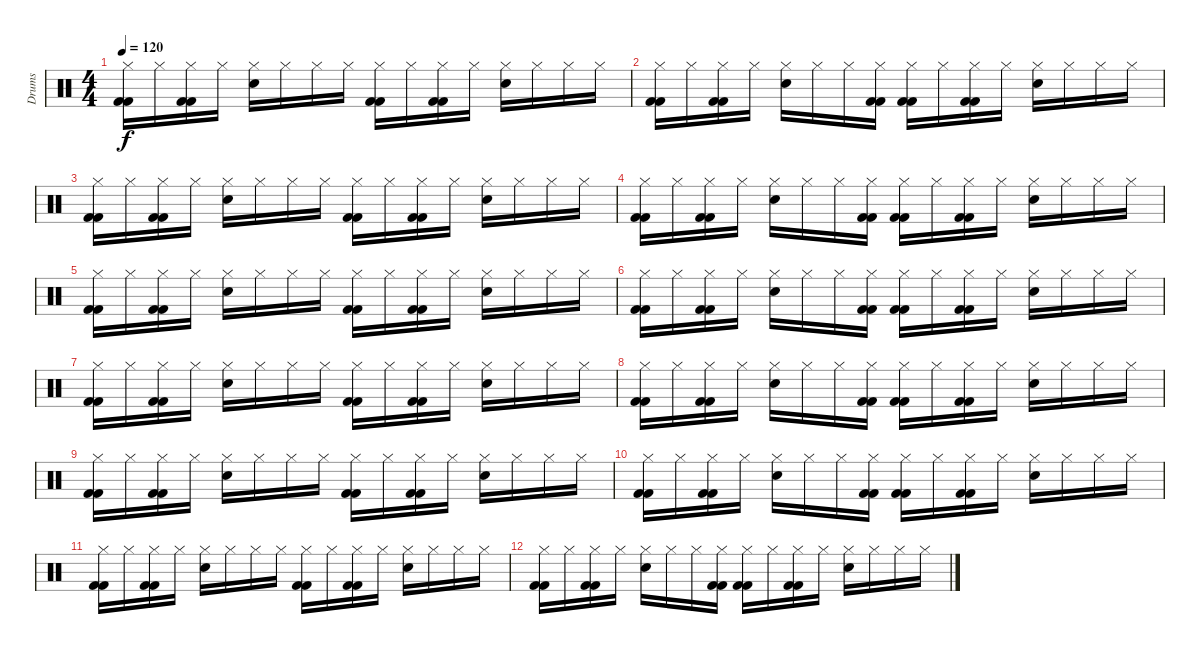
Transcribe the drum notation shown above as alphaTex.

\track ("Drums" "Drums") {instrument percussion}
\staff {score}
\articulation defaults
\ts (4 4)
\tempo 120
\clef neutral
\ks c
("Hi-Hat (closed)" "Kick (hit) 2" "Kick (hit) 2").16{dy f} "Hi-Hat (closed)".16 ("Hi-Hat (closed)" "Kick (hit) 2" "Kick (hit) 2").16 "Hi-Hat (closed)".16 ("Hi-Hat (closed)" "Electric Snare (hit)").16 "Hi-Hat (closed)".16 "Hi-Hat (closed)".16 "Hi-Hat (closed)".16 ("Hi-Hat (closed)" "Kick (hit) 2" "Kick (hit) 2").16 "Hi-Hat (closed)".16 ("Hi-Hat (closed)" "Kick (hit) 2" "Kick (hit) 2").16 "Hi-Hat (closed)".16 ("Hi-Hat (closed)" "Electric Snare (hit)").16 "Hi-Hat (closed)".16 "Hi-Hat (closed)".16 "Hi-Hat (closed)".16 |
("Hi-Hat (closed)" "Kick (hit) 2" "Kick (hit) 2").16 "Hi-Hat (closed)".16 ("Hi-Hat (closed)" "Kick (hit) 2" "Kick (hit) 2").16 "Hi-Hat (closed)".16 ("Hi-Hat (closed)" "Electric Snare (hit)").16 "Hi-Hat (closed)".16 "Hi-Hat (closed)".16 ("Hi-Hat (closed)" "Kick (hit) 2" "Kick (hit) 2").16 ("Hi-Hat (closed)" "Kick (hit) 2" "Kick (hit) 2").16 "Hi-Hat (closed)".16 ("Hi-Hat (closed)" "Kick (hit) 2" "Kick (hit) 2").16 "Hi-Hat (closed)".16 ("Hi-Hat (closed)" "Electric Snare (hit)").16 "Hi-Hat (closed)".16 "Hi-Hat (closed)".16 "Hi-Hat (closed)".16 |
("Hi-Hat (closed)" "Kick (hit) 2" "Kick (hit) 2").16 "Hi-Hat (closed)".16 ("Hi-Hat (closed)" "Kick (hit) 2" "Kick (hit) 2").16 "Hi-Hat (closed)".16 ("Hi-Hat (closed)" "Electric Snare (hit)").16 "Hi-Hat (closed)".16 "Hi-Hat (closed)".16 "Hi-Hat (closed)".16 ("Hi-Hat (closed)" "Kick (hit) 2" "Kick (hit) 2").16 "Hi-Hat (closed)".16 ("Hi-Hat (closed)" "Kick (hit) 2" "Kick (hit) 2").16 "Hi-Hat (closed)".16 ("Hi-Hat (closed)" "Electric Snare (hit)").16 "Hi-Hat (closed)".16 "Hi-Hat (closed)".16 "Hi-Hat (closed)".16 |
("Hi-Hat (closed)" "Kick (hit) 2" "Kick (hit) 2").16 "Hi-Hat (closed)".16 ("Hi-Hat (closed)" "Kick (hit) 2" "Kick (hit) 2").16 "Hi-Hat (closed)".16 ("Hi-Hat (closed)" "Electric Snare (hit)").16 "Hi-Hat (closed)".16 "Hi-Hat (closed)".16 ("Hi-Hat (closed)" "Kick (hit) 2" "Kick (hit) 2").16 ("Hi-Hat (closed)" "Kick (hit) 2" "Kick (hit) 2").16 "Hi-Hat (closed)".16 ("Hi-Hat (closed)" "Kick (hit) 2" "Kick (hit) 2").16 "Hi-Hat (closed)".16 ("Hi-Hat (closed)" "Electric Snare (hit)").16 "Hi-Hat (closed)".16 "Hi-Hat (closed)".16 "Hi-Hat (closed)".16 |
("Hi-Hat (closed)" "Kick (hit) 2" "Kick (hit) 2").16{volume 8} "Hi-Hat (closed)".16 ("Hi-Hat (closed)" "Kick (hit) 2" "Kick (hit) 2").16 "Hi-Hat (closed)".16 ("Hi-Hat (closed)" "Electric Snare (hit)").16 "Hi-Hat (closed)".16 "Hi-Hat (closed)".16 "Hi-Hat (closed)".16 ("Hi-Hat (closed)" "Kick (hit) 2" "Kick (hit) 2").16 "Hi-Hat (closed)".16 ("Hi-Hat (closed)" "Kick (hit) 2" "Kick (hit) 2").16 "Hi-Hat (closed)".16 ("Hi-Hat (closed)" "Electric Snare (hit)").16 "Hi-Hat (closed)".16 "Hi-Hat (closed)".16 "Hi-Hat (closed)".16 |
("Hi-Hat (closed)" "Kick (hit) 2" "Kick (hit) 2").16 "Hi-Hat (closed)".16 ("Hi-Hat (closed)" "Kick (hit) 2" "Kick (hit) 2").16 "Hi-Hat (closed)".16 ("Hi-Hat (closed)" "Electric Snare (hit)").16 "Hi-Hat (closed)".16 "Hi-Hat (closed)".16 ("Hi-Hat (closed)" "Kick (hit) 2" "Kick (hit) 2").16 ("Hi-Hat (closed)" "Kick (hit) 2" "Kick (hit) 2").16 "Hi-Hat (closed)".16 ("Hi-Hat (closed)" "Kick (hit) 2" "Kick (hit) 2").16 "Hi-Hat (closed)".16 ("Hi-Hat (closed)" "Electric Snare (hit)").16 "Hi-Hat (closed)".16 "Hi-Hat (closed)".16 "Hi-Hat (closed)".16 |
("Hi-Hat (closed)" "Kick (hit) 2" "Kick (hit) 2").16 "Hi-Hat (closed)".16 ("Hi-Hat (closed)" "Kick (hit) 2" "Kick (hit) 2").16 "Hi-Hat (closed)".16 ("Hi-Hat (closed)" "Electric Snare (hit)").16 "Hi-Hat (closed)".16 "Hi-Hat (closed)".16 "Hi-Hat (closed)".16 ("Hi-Hat (closed)" "Kick (hit) 2" "Kick (hit) 2").16 "Hi-Hat (closed)".16 ("Hi-Hat (closed)" "Kick (hit) 2" "Kick (hit) 2").16 "Hi-Hat (closed)".16 ("Hi-Hat (closed)" "Electric Snare (hit)").16 "Hi-Hat (closed)".16 "Hi-Hat (closed)".16 "Hi-Hat (closed)".16 |
("Hi-Hat (closed)" "Kick (hit) 2" "Kick (hit) 2").16 "Hi-Hat (closed)".16 ("Hi-Hat (closed)" "Kick (hit) 2" "Kick (hit) 2").16 "Hi-Hat (closed)".16 ("Hi-Hat (closed)" "Electric Snare (hit)").16 "Hi-Hat (closed)".16 "Hi-Hat (closed)".16 ("Hi-Hat (closed)" "Kick (hit) 2" "Kick (hit) 2").16 ("Hi-Hat (closed)" "Kick (hit) 2" "Kick (hit) 2").16 "Hi-Hat (closed)".16 ("Hi-Hat (closed)" "Kick (hit) 2" "Kick (hit) 2").16 "Hi-Hat (closed)".16 ("Hi-Hat (closed)" "Electric Snare (hit)").16 "Hi-Hat (closed)".16 "Hi-Hat (closed)".16 "Hi-Hat (closed)".16 |
("Hi-Hat (closed)" "Kick (hit) 2" "Kick (hit) 2").16{volume 0} "Hi-Hat (closed)".16 ("Hi-Hat (closed)" "Kick (hit) 2" "Kick (hit) 2").16 "Hi-Hat (closed)".16 ("Hi-Hat (closed)" "Electric Snare (hit)").16 "Hi-Hat (closed)".16 "Hi-Hat (closed)".16 "Hi-Hat (closed)".16 ("Hi-Hat (closed)" "Kick (hit) 2" "Kick (hit) 2").16 "Hi-Hat (closed)".16 ("Hi-Hat (closed)" "Kick (hit) 2" "Kick (hit) 2").16 "Hi-Hat (closed)".16 ("Hi-Hat (closed)" "Electric Snare (hit)").16 "Hi-Hat (closed)".16 "Hi-Hat (closed)".16 "Hi-Hat (closed)".16 |
("Hi-Hat (closed)" "Kick (hit) 2" "Kick (hit) 2").16 "Hi-Hat (closed)".16 ("Hi-Hat (closed)" "Kick (hit) 2" "Kick (hit) 2").16 "Hi-Hat (closed)".16 ("Hi-Hat (closed)" "Electric Snare (hit)").16 "Hi-Hat (closed)".16 "Hi-Hat (closed)".16 ("Hi-Hat (closed)" "Kick (hit) 2" "Kick (hit) 2").16 ("Hi-Hat (closed)" "Kick (hit) 2" "Kick (hit) 2").16 "Hi-Hat (closed)".16 ("Hi-Hat (closed)" "Kick (hit) 2" "Kick (hit) 2").16 "Hi-Hat (closed)".16 ("Hi-Hat (closed)" "Electric Snare (hit)").16 "Hi-Hat (closed)".16 "Hi-Hat (closed)".16 "Hi-Hat (closed)".16 |
("Hi-Hat (closed)" "Kick (hit) 2" "Kick (hit) 2").16 "Hi-Hat (closed)".16 ("Hi-Hat (closed)" "Kick (hit) 2" "Kick (hit) 2").16 "Hi-Hat (closed)".16 ("Hi-Hat (closed)" "Electric Snare (hit)").16 "Hi-Hat (closed)".16 "Hi-Hat (closed)".16 "Hi-Hat (closed)".16 ("Hi-Hat (closed)" "Kick (hit) 2" "Kick (hit) 2").16 "Hi-Hat (closed)".16 ("Hi-Hat (closed)" "Kick (hit) 2" "Kick (hit) 2").16 "Hi-Hat (closed)".16 ("Hi-Hat (closed)" "Electric Snare (hit)").16 "Hi-Hat (closed)".16 "Hi-Hat (closed)".16 "Hi-Hat (closed)".16 |
("Hi-Hat (closed)" "Kick (hit) 2" "Kick (hit) 2").16 "Hi-Hat (closed)".16 ("Hi-Hat (closed)" "Kick (hit) 2" "Kick (hit) 2").16 "Hi-Hat (closed)".16 ("Hi-Hat (closed)" "Electric Snare (hit)").16 "Hi-Hat (closed)".16 "Hi-Hat (closed)".16 ("Hi-Hat (closed)" "Kick (hit) 2" "Kick (hit) 2").16 ("Hi-Hat (closed)" "Kick (hit) 2" "Kick (hit) 2").16 "Hi-Hat (closed)".16 ("Hi-Hat (closed)" "Kick (hit) 2" "Kick (hit) 2").16 "Hi-Hat (closed)".16 ("Hi-Hat (closed)" "Electric Snare (hit)").16 "Hi-Hat (closed)".16 "Hi-Hat (closed)".16 "Hi-Hat (closed)".16
